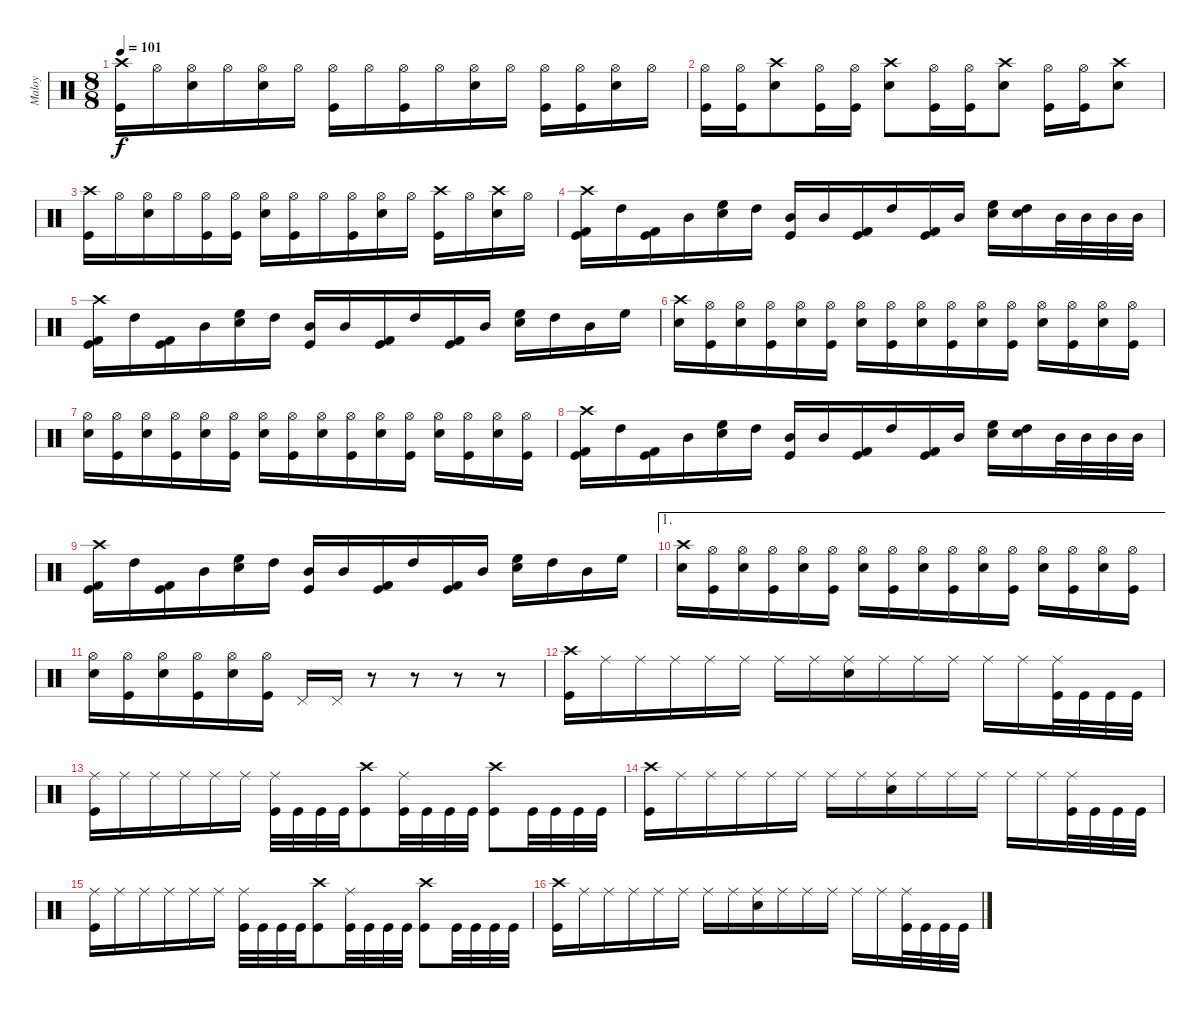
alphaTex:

\track ("Maloy" "Maloy") {instrument percussion}
\staff {score}
\articulation defaults
\ts (8 8)
\tempo 101
\clef neutral
\ks c
("Crash high (hit)" "Kick (hit)").16{dy f} "Hi-Hat (open)".16 ("Hi-Hat (open)" "Snare (hit) 2").16 "Hi-Hat (open)".16 ("Hi-Hat (open)" "Snare (hit) 2").16 "Hi-Hat (open)".16 ("Hi-Hat (open)" "Kick (hit)").16 "Hi-Hat (open)".16 ("Hi-Hat (open)" "Kick (hit)").16 "Hi-Hat (open)".16 ("Hi-Hat (open)" "Snare (hit) 2").16 "Hi-Hat (open)".16 ("Hi-Hat (open)" "Kick (hit)").16 ("Hi-Hat (open)" "Kick (hit)").16 ("Hi-Hat (open)" "Snare (hit) 2").16 "Hi-Hat (open)".16 |
("Hi-Hat (open)" "Kick (hit)").16 ("Hi-Hat (open)" "Kick (hit)").16 ("Crash high (hit)" "Snare (hit) 2").8 ("Hi-Hat (open)" "Kick (hit)").16 ("Hi-Hat (open)" "Kick (hit)").16 ("Crash high (hit)" "Snare (hit) 2").8 ("Hi-Hat (open)" "Kick (hit)").16 ("Hi-Hat (open)" "Kick (hit)").16 ("Crash high (hit)" "Snare (hit) 2").8 ("Hi-Hat (open)" "Kick (hit)").16 ("Hi-Hat (open)" "Kick (hit)").16 ("Crash high (hit)" "Snare (hit) 2").8 |
("Crash high (hit)" "Kick (hit)").16 "Hi-Hat (open)".16 ("Hi-Hat (open)" "Snare (hit) 2").16 "Hi-Hat (open)".16 ("Hi-Hat (open)" "Kick (hit)").16 ("Hi-Hat (open)" "Kick (hit)").16 ("Hi-Hat (open)" "Snare (hit) 2").16 ("Hi-Hat (open)" "Kick (hit)").16 "Hi-Hat (open)".16 ("Hi-Hat (open)" "Kick (hit)").16 ("Hi-Hat (open)" "Snare (hit) 2").16 "Hi-Hat (open)".16 ("Crash high (hit)" "Kick (hit)").16 "Hi-Hat (open)".16 ("Crash high (hit)" "Snare (hit) 2").16 "Hi-Hat (open)".16 |
("Crash high (hit)" "Kick (hit)" "Kick (hit) 2").16 "High Tom (hit)".16 ("Kick (hit)" "Kick (hit) 2").16 "Mid Tom (hit)".16 ("Electric Snare (hit)" "High Floor Tom (hit)").16 "High Tom (hit)".16 ("Kick (hit)" "Mid Tom (hit)").16 "Mid Tom (hit)".16 ("Kick (hit)" "Kick (hit) 2").16 "High Tom (hit)".16 ("Kick (hit)" "Kick (hit) 2").16 "Mid Tom (hit)".16 ("Electric Snare (hit)" "High Floor Tom (hit)").16 ("Electric Snare (hit)" "High Tom (hit)").16 "Mid Tom (hit)".32 "Mid Tom (hit)".32 "Mid Tom (hit)".32 "Mid Tom (hit)".32 |
("Crash high (hit)" "Kick (hit)" "Kick (hit) 2").16 "High Tom (hit)".16 ("Kick (hit)" "Kick (hit) 2").16 "Mid Tom (hit)".16 ("Electric Snare (hit)" "High Floor Tom (hit)").16 "High Tom (hit)".16 ("Kick (hit)" "Mid Tom (hit)").16 "Mid Tom (hit)".16 ("Kick (hit)" "Kick (hit) 2").16 "High Tom (hit)".16 ("Kick (hit)" "Kick (hit) 2").16 "Mid Tom (hit)".16 ("Electric Snare (hit)" "High Floor Tom (hit)").16 "High Tom (hit)".16 "Mid Tom (hit)".16 "High Floor Tom (hit)".16 |
("Crash high (hit)" "Snare (hit) 2").16 ("Hi-Hat (open)" "Kick (hit)").16 ("Hi-Hat (open)" "Snare (hit) 2").16 ("Hi-Hat (open)" "Kick (hit)").16 ("Hi-Hat (open)" "Snare (hit) 2").16 ("Hi-Hat (open)" "Kick (hit)").16 ("Hi-Hat (open)" "Snare (hit) 2").16 ("Hi-Hat (open)" "Kick (hit)").16 ("Hi-Hat (open)" "Snare (hit) 2").16 ("Hi-Hat (open)" "Kick (hit)").16 ("Hi-Hat (open)" "Snare (hit) 2").16 ("Hi-Hat (open)" "Kick (hit)").16 ("Hi-Hat (open)" "Snare (hit) 2").16 ("Hi-Hat (open)" "Kick (hit)").16 ("Hi-Hat (open)" "Snare (hit) 2").16 ("Hi-Hat (open)" "Kick (hit)").16 |
("Hi-Hat (open)" "Snare (hit) 2").16 ("Hi-Hat (open)" "Kick (hit)").16 ("Hi-Hat (open)" "Snare (hit) 2").16 ("Hi-Hat (open)" "Kick (hit)").16 ("Hi-Hat (open)" "Snare (hit) 2").16 ("Hi-Hat (open)" "Kick (hit)").16 ("Hi-Hat (open)" "Snare (hit) 2").16 ("Hi-Hat (open)" "Kick (hit)").16 ("Hi-Hat (open)" "Snare (hit) 2").16 ("Hi-Hat (open)" "Kick (hit)").16 ("Hi-Hat (open)" "Snare (hit) 2").16 ("Hi-Hat (open)" "Kick (hit)").16 ("Hi-Hat (open)" "Snare (hit) 2").16 ("Hi-Hat (open)" "Kick (hit)").16 ("Hi-Hat (open)" "Snare (hit) 2").16 ("Hi-Hat (open)" "Kick (hit)").16 |
("Crash high (hit)" "Kick (hit)" "Kick (hit) 2").16 "High Tom (hit)".16 ("Kick (hit)" "Kick (hit) 2").16 "Mid Tom (hit)".16 ("Electric Snare (hit)" "High Floor Tom (hit)").16 "High Tom (hit)".16 ("Kick (hit)" "Mid Tom (hit)").16 "Mid Tom (hit)".16 ("Kick (hit)" "Kick (hit) 2").16 "High Tom (hit)".16 ("Kick (hit)" "Kick (hit) 2").16 "Mid Tom (hit)".16 ("Electric Snare (hit)" "High Floor Tom (hit)").16 ("Electric Snare (hit)" "High Tom (hit)").16 "Mid Tom (hit)".32 "Mid Tom (hit)".32 "Mid Tom (hit)".32 "Mid Tom (hit)".32 |
("Crash high (hit)" "Kick (hit)" "Kick (hit) 2").16 "High Tom (hit)".16 ("Kick (hit)" "Kick (hit) 2").16 "Mid Tom (hit)".16 ("Electric Snare (hit)" "High Floor Tom (hit)").16 "High Tom (hit)".16 ("Kick (hit)" "Mid Tom (hit)").16 "Mid Tom (hit)".16 ("Kick (hit)" "Kick (hit) 2").16 "High Tom (hit)".16 ("Kick (hit)" "Kick (hit) 2").16 "Mid Tom (hit)".16 ("Electric Snare (hit)" "High Floor Tom (hit)").16 "High Tom (hit)".16 "Mid Tom (hit)".16 "High Floor Tom (hit)".16 |
\ae 1
("Crash high (hit)" "Snare (hit) 2").16 ("Hi-Hat (open)" "Kick (hit)").16 ("Hi-Hat (open)" "Snare (hit) 2").16 ("Hi-Hat (open)" "Kick (hit)").16 ("Hi-Hat (open)" "Snare (hit) 2").16 ("Hi-Hat (open)" "Kick (hit)").16 ("Hi-Hat (open)" "Snare (hit) 2").16 ("Hi-Hat (open)" "Kick (hit)").16 ("Hi-Hat (open)" "Snare (hit) 2").16 ("Hi-Hat (open)" "Kick (hit)").16 ("Hi-Hat (open)" "Snare (hit) 2").16 ("Hi-Hat (open)" "Kick (hit)").16 ("Hi-Hat (open)" "Snare (hit) 2").16 ("Hi-Hat (open)" "Kick (hit)").16 ("Hi-Hat (open)" "Snare (hit) 2").16 ("Hi-Hat (open)" "Kick (hit)").16 |
("Hi-Hat (open)" "Snare (hit) 2").16 ("Hi-Hat (open)" "Kick (hit)").16 ("Hi-Hat (open)" "Snare (hit) 2").16 ("Hi-Hat (open)" "Kick (hit)").16 ("Hi-Hat (open)" "Snare (hit) 2").16 ("Hi-Hat (open)" "Kick (hit)").16 "Pedal Hi-Hat (hit)".16 "Pedal Hi-Hat (hit)".16 r.8 r.8 r.8 r.8 |
("Crash high (hit)" "Kick (hit)").16 "Ride (middle)".16 "Ride (middle)".16 "Ride (middle)".16 "Ride (middle)".16 "Ride (middle)".16 "Ride (middle)".16 "Ride (middle)".16 ("Ride (middle)" "Snare (hit) 2").16 "Ride (middle)".16 "Ride (middle)".16 "Ride (middle)".16 "Ride (middle)".16 "Ride (middle)".16 ("Ride (middle)" "Kick (hit)").32 "Kick (hit)".32 "Kick (hit)".32 "Kick (hit)".32 |
("Ride (middle)" "Kick (hit)").16 "Ride (middle)".16 "Ride (middle)".16 "Ride (middle)".16 "Ride (middle)".16 "Ride (middle)".16 ("Ride (middle)" "Kick (hit)").32 "Kick (hit)".32 "Kick (hit)".32 "Kick (hit)".32 ("Crash high (hit)" "Kick (hit)").8 ("Ride (middle)" "Kick (hit)").32 "Kick (hit)".32 "Kick (hit)".32 "Kick (hit)".32 ("Crash high (hit)" "Kick (hit)").8 "Kick (hit)".32 "Kick (hit)".32 "Kick (hit)".32 "Kick (hit)".32 |
("Crash high (hit)" "Kick (hit)").16 "Ride (middle)".16 "Ride (middle)".16 "Ride (middle)".16 "Ride (middle)".16 "Ride (middle)".16 "Ride (middle)".16 "Ride (middle)".16 ("Ride (middle)" "Snare (hit) 2").16 "Ride (middle)".16 "Ride (middle)".16 "Ride (middle)".16 "Ride (middle)".16 "Ride (middle)".16 ("Ride (middle)" "Kick (hit)").32 "Kick (hit)".32 "Kick (hit)".32 "Kick (hit)".32 |
("Ride (middle)" "Kick (hit)").16 "Ride (middle)".16 "Ride (middle)".16 "Ride (middle)".16 "Ride (middle)".16 "Ride (middle)".16 ("Ride (middle)" "Kick (hit)").32 "Kick (hit)".32 "Kick (hit)".32 "Kick (hit)".32 ("Crash high (hit)" "Kick (hit)").8 ("Ride (middle)" "Kick (hit)").32 "Kick (hit)".32 "Kick (hit)".32 "Kick (hit)".32 ("Crash high (hit)" "Kick (hit)").8 "Kick (hit)".32 "Kick (hit)".32 "Kick (hit)".32 "Kick (hit)".32 |
("Crash high (hit)" "Kick (hit)").16 "Ride (middle)".16 "Ride (middle)".16 "Ride (middle)".16 "Ride (middle)".16 "Ride (middle)".16 "Ride (middle)".16 "Ride (middle)".16 ("Ride (middle)" "Snare (hit) 2").16 "Ride (middle)".16 "Ride (middle)".16 "Ride (middle)".16 "Ride (middle)".16 "Ride (middle)".16 ("Ride (middle)" "Kick (hit)").32 "Kick (hit)".32 "Kick (hit)".32 "Kick (hit)".32
